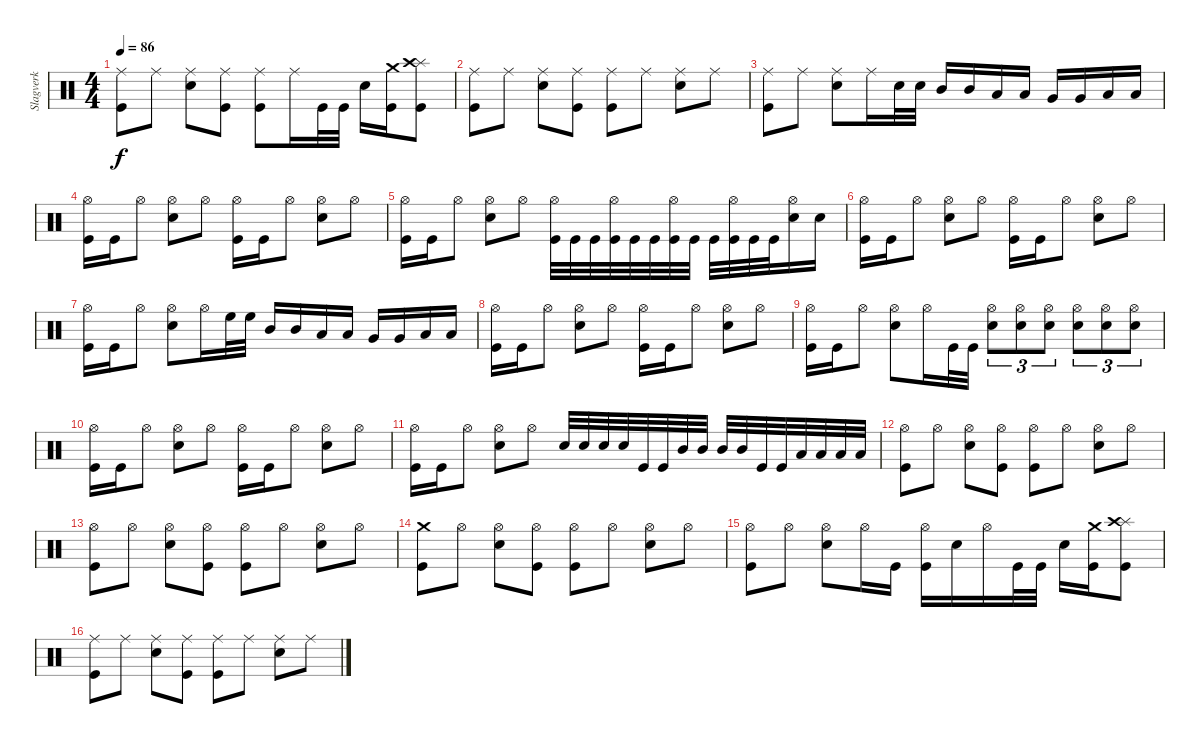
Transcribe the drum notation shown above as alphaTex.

\track ("Slagverk" "Slagverk") {instrument percussion}
\staff {score}
\articulation defaults
\ts (4 4)
\tempo 86
\clef neutral
\ks c
("Ride (middle)" "Kick (hit)").8{dy f} "Ride (middle)".8 ("Ride (middle)" "Electric Snare (hit)").8 ("Ride (middle)" "Kick (hit)").8 ("Ride (middle)" "Kick (hit)").8 "Ride (middle)".16 "Kick (hit)".32 "Kick (hit)".32 "Electric Snare (hit)".16 ("Crash medium (hit)" "Kick (hit)").16 ("Splash (hit)" "Crash high (hit)" "Kick (hit)").8 |
("Ride (middle)" "Kick (hit)").8 "Ride (middle)".8 ("Ride (middle)" "Electric Snare (hit)").8 ("Ride (middle)" "Kick (hit)").8 ("Ride (middle)" "Kick (hit)").8 "Ride (middle)".8 ("Ride (middle)" "Electric Snare (hit)").8 "Ride (middle)".8 |
("Ride (middle)" "Kick (hit)").8 "Ride (middle)".8 ("Ride (middle)" "Electric Snare (hit)").8 "Ride (middle)".16 "Electric Snare (hit)".32 "Electric Snare (hit)".32 "Mid Tom (hit)".16 "Mid Tom (hit)".16 "Low Tom (hit)".16 "Low Tom (hit)".16 "Very Low Tom (hit)".16 "Very Low Tom (hit)".16 "Low Floor Tom (hit)".16 "Low Floor Tom (hit)".16 |
("Hi-Hat (open)" "Kick (hit)").16 "Kick (hit)".16 "Hi-Hat (open)".8 ("Hi-Hat (open)" "Electric Snare (hit)").8 "Hi-Hat (open)".8 ("Hi-Hat (open)" "Kick (hit)").16 "Kick (hit)".16 "Hi-Hat (open)".8 ("Hi-Hat (open)" "Electric Snare (hit)").8 "Hi-Hat (open)".8 |
("Hi-Hat (open)" "Kick (hit)").16 "Kick (hit)".16 "Hi-Hat (open)".8 ("Hi-Hat (open)" "Electric Snare (hit)").8 "Hi-Hat (open)".8 ("Hi-Hat (open)" "Kick (hit)").32 "Kick (hit)".32 "Kick (hit)".32 ("Hi-Hat (open)" "Kick (hit)").32 "Kick (hit)".32 "Kick (hit)".32 ("Hi-Hat (open)" "Kick (hit)").32 "Kick (hit)".32 "Kick (hit)".32 ("Hi-Hat (open)" "Kick (hit)").32 "Kick (hit)".32 "Kick (hit)".32 ("Hi-Hat (open)" "Electric Snare (hit)").16 "Electric Snare (hit)".16 |
("Hi-Hat (open)" "Kick (hit)").16 "Kick (hit)".16 "Hi-Hat (open)".8 ("Hi-Hat (open)" "Electric Snare (hit)").8 "Hi-Hat (open)".8 ("Hi-Hat (open)" "Kick (hit)").16 "Kick (hit)".16 "Hi-Hat (open)".8 ("Hi-Hat (open)" "Electric Snare (hit)").8 "Hi-Hat (open)".8 |
("Hi-Hat (open)" "Kick (hit)").16 "Kick (hit)".16 "Hi-Hat (open)".8 ("Hi-Hat (open)" "Electric Snare (hit)").8 "Hi-Hat (open)".16 "High Floor Tom (hit)".32 "High Floor Tom (hit)".32 "Mid Tom (hit)".16 "Mid Tom (hit)".16 "Low Tom (hit)".16 "Low Tom (hit)".16 "Very Low Tom (hit)".16 "Very Low Tom (hit)".16 "Low Floor Tom (hit)".16 "Low Floor Tom (hit)".16 |
("Hi-Hat (open)" "Kick (hit)").16 "Kick (hit)".16 "Hi-Hat (open)".8 ("Hi-Hat (open)" "Electric Snare (hit)").8 "Hi-Hat (open)".8 ("Hi-Hat (open)" "Kick (hit)").16 "Kick (hit)".16 "Hi-Hat (open)".8 ("Hi-Hat (open)" "Electric Snare (hit)").8 "Hi-Hat (open)".8 |
("Hi-Hat (open)" "Kick (hit)").16 "Kick (hit)".16 "Hi-Hat (open)".8 ("Hi-Hat (open)" "Electric Snare (hit)").8 "Hi-Hat (open)".16 "Kick (hit)".32 "Kick (hit)".32 ("Hi-Hat (open)" "Electric Snare (hit)").8{tu (3 2)} ("Hi-Hat (open)" "Electric Snare (hit)").8{tu (3 2)} ("Hi-Hat (open)" "Electric Snare (hit)").8{tu (3 2)} ("Hi-Hat (open)" "Electric Snare (hit)").8{tu (3 2)} ("Hi-Hat (open)" "Electric Snare (hit)").8{tu (3 2)} ("Hi-Hat (open)" "Electric Snare (hit)").8{tu (3 2)} |
("Hi-Hat (open)" "Kick (hit)").16 "Kick (hit)".16 "Hi-Hat (open)".8 ("Hi-Hat (open)" "Electric Snare (hit)").8 "Hi-Hat (open)".8 ("Hi-Hat (open)" "Kick (hit)").16 "Kick (hit)".16 "Hi-Hat (open)".8 ("Hi-Hat (open)" "Electric Snare (hit)").8 "Hi-Hat (open)".8 |
("Hi-Hat (open)" "Kick (hit)").16 "Kick (hit)".16 "Hi-Hat (open)".8 ("Hi-Hat (open)" "Electric Snare (hit)").8 "Hi-Hat (open)".8 "Electric Snare (hit)".32 "Electric Snare (hit)".32 "Electric Snare (hit)".32 "Electric Snare (hit)".32 "Kick (hit)".32 "Kick (hit)".32 "Mid Tom (hit)".32 "Mid Tom (hit)".32 "Mid Tom (hit)".32 "Mid Tom (hit)".32 "Kick (hit)".32 "Kick (hit)".32 "Low Tom (hit)".32 "Low Tom (hit)".32 "Low Tom (hit)".32 "Low Tom (hit)".32 |
("Hi-Hat (open)" "Kick (hit)").8 "Hi-Hat (open)".8 ("Hi-Hat (open)" "Electric Snare (hit)").8 ("Hi-Hat (open)" "Kick (hit)").8 ("Hi-Hat (open)" "Kick (hit)").8 "Hi-Hat (open)".8 ("Hi-Hat (open)" "Electric Snare (hit)").8 "Hi-Hat (open)".8 |
("Hi-Hat (open)" "Kick (hit)").8 "Hi-Hat (open)".8 ("Hi-Hat (open)" "Electric Snare (hit)").8 ("Hi-Hat (open)" "Kick (hit)").8 ("Hi-Hat (open)" "Kick (hit)").8 "Hi-Hat (open)".8 ("Hi-Hat (open)" "Electric Snare (hit)").8 "Hi-Hat (open)".8 |
("Crash medium (hit)" "Kick (hit)").8 "Hi-Hat (open)".8 ("Hi-Hat (open)" "Electric Snare (hit)").8 ("Hi-Hat (open)" "Kick (hit)").8 ("Hi-Hat (open)" "Kick (hit)").8 "Hi-Hat (open)".8 ("Hi-Hat (open)" "Electric Snare (hit)").8 "Hi-Hat (open)".8 |
("Hi-Hat (open)" "Kick (hit)").8 "Hi-Hat (open)".8 ("Hi-Hat (open)" "Electric Snare (hit)").8 "Hi-Hat (open)".16 "Kick (hit)".16 ("Hi-Hat (open)" "Kick (hit)").16 "Electric Snare (hit)".16 "Hi-Hat (open)".16 "Kick (hit)".32 "Kick (hit)".32 "Electric Snare (hit)".16 ("Crash medium (hit)" "Kick (hit)").16 ("Splash (hit)" "Crash high (hit)" "Kick (hit)").8 |
("Ride (middle)" "Kick (hit)").8 "Ride (middle)".8 ("Ride (middle)" "Electric Snare (hit)").8 ("Ride (middle)" "Kick (hit)").8 ("Ride (middle)" "Kick (hit)").8 "Ride (middle)".8 ("Ride (middle)" "Electric Snare (hit)").8 "Ride (middle)".8
